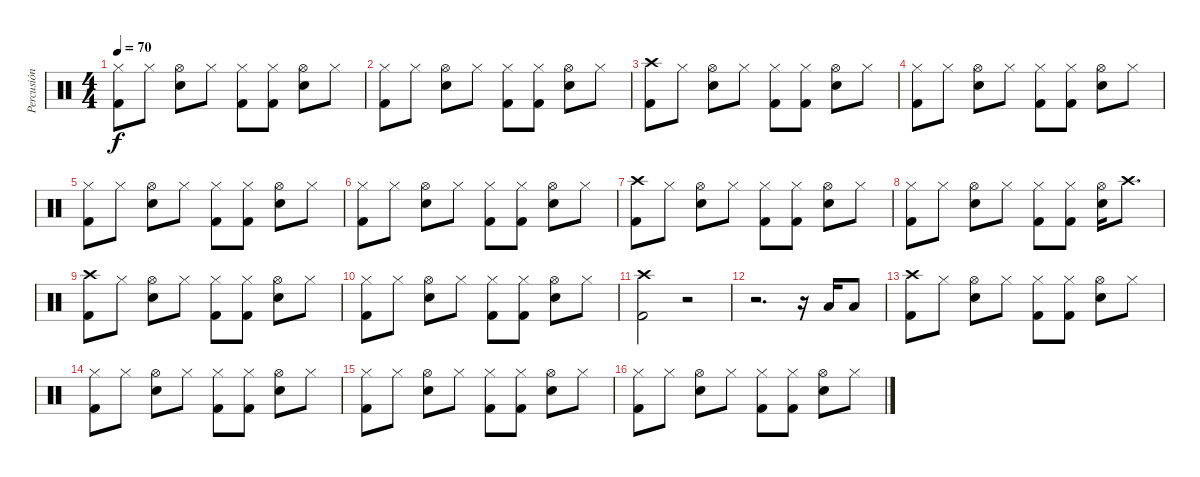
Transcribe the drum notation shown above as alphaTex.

\track ("Percusión" "Percusión") {instrument percussion}
\staff {score}
\articulation defaults
\ts (4 4)
\tempo 70
\clef neutral
\ks c
("Hi-Hat (closed)" "Kick (hit) 2").8{dy f} "Hi-Hat (closed)".8 ("Hi-Hat (open)" "Snare (hit) 2").8 "Hi-Hat (closed)".8 ("Hi-Hat (closed)" "Kick (hit) 2").8 ("Hi-Hat (closed)" "Kick (hit) 2").8 ("Hi-Hat (open)" "Snare (hit) 2").8 "Hi-Hat (closed)".8 |
("Hi-Hat (closed)" "Kick (hit) 2").8 "Hi-Hat (closed)".8 ("Hi-Hat (open)" "Snare (hit) 2").8 "Hi-Hat (closed)".8 ("Hi-Hat (closed)" "Kick (hit) 2").8 ("Hi-Hat (closed)" "Kick (hit) 2").8 ("Hi-Hat (open)" "Snare (hit) 2").8 "Hi-Hat (closed)".8 |
("Crash high (hit)" "Kick (hit) 2").8 "Hi-Hat (closed)".8 ("Hi-Hat (open)" "Snare (hit) 2").8 "Hi-Hat (closed)".8 ("Hi-Hat (closed)" "Kick (hit) 2").8 ("Hi-Hat (closed)" "Kick (hit) 2").8 ("Hi-Hat (open)" "Snare (hit) 2").8 "Hi-Hat (closed)".8 |
("Hi-Hat (closed)" "Kick (hit) 2").8 "Hi-Hat (closed)".8 ("Hi-Hat (open)" "Snare (hit) 2").8 "Hi-Hat (closed)".8 ("Hi-Hat (closed)" "Kick (hit) 2").8 ("Hi-Hat (closed)" "Kick (hit) 2").8 ("Hi-Hat (open)" "Snare (hit) 2").8 "Hi-Hat (closed)".8 |
("Hi-Hat (closed)" "Kick (hit) 2").8 "Hi-Hat (closed)".8 ("Hi-Hat (open)" "Snare (hit) 2").8 "Hi-Hat (closed)".8 ("Hi-Hat (closed)" "Kick (hit) 2").8 ("Hi-Hat (closed)" "Kick (hit) 2").8 ("Hi-Hat (open)" "Snare (hit) 2").8 "Hi-Hat (closed)".8 |
("Hi-Hat (closed)" "Kick (hit) 2").8 "Hi-Hat (closed)".8 ("Hi-Hat (open)" "Snare (hit) 2").8 "Hi-Hat (closed)".8 ("Hi-Hat (closed)" "Kick (hit) 2").8 ("Hi-Hat (closed)" "Kick (hit) 2").8 ("Hi-Hat (open)" "Snare (hit) 2").8 "Hi-Hat (closed)".8 |
("Crash high (hit)" "Kick (hit) 2").8 "Hi-Hat (closed)".8 ("Hi-Hat (open)" "Snare (hit) 2").8 "Hi-Hat (closed)".8 ("Hi-Hat (closed)" "Kick (hit) 2").8 ("Hi-Hat (closed)" "Kick (hit) 2").8 ("Hi-Hat (open)" "Snare (hit) 2").8 "Hi-Hat (closed)".8 |
("Hi-Hat (closed)" "Kick (hit) 2").8 "Hi-Hat (closed)".8 ("Hi-Hat (open)" "Snare (hit) 2").8 "Hi-Hat (closed)".8 ("Hi-Hat (closed)" "Kick (hit) 2").8 ("Hi-Hat (closed)" "Kick (hit) 2").8 ("Hi-Hat (open)" "Snare (hit) 2").16 "Crash high (hit)".8{d} |
("Crash high (hit)" "Kick (hit) 2").8 "Hi-Hat (closed)".8 ("Hi-Hat (open)" "Snare (hit) 2").8 "Hi-Hat (closed)".8 ("Hi-Hat (closed)" "Kick (hit) 2").8 ("Hi-Hat (closed)" "Kick (hit) 2").8 ("Hi-Hat (open)" "Snare (hit) 2").8 "Hi-Hat (closed)".8 |
("Hi-Hat (closed)" "Kick (hit) 2").8 "Hi-Hat (closed)".8 ("Hi-Hat (open)" "Snare (hit) 2").8 "Hi-Hat (closed)".8 ("Hi-Hat (closed)" "Kick (hit) 2").8 ("Hi-Hat (closed)" "Kick (hit) 2").8 ("Hi-Hat (open)" "Snare (hit) 2").8 "Hi-Hat (closed)".8 |
("Crash high (hit)" "Kick (hit) 2").2 r.2 |
r.2{d} r.16 "Low Tom (hit)".16 "Low Tom (hit)".8 |
("Crash high (hit)" "Kick (hit) 2").8 "Hi-Hat (closed)".8 ("Hi-Hat (open)" "Snare (hit) 2").8 "Hi-Hat (closed)".8 ("Hi-Hat (closed)" "Kick (hit) 2").8 ("Hi-Hat (closed)" "Kick (hit) 2").8 ("Hi-Hat (open)" "Snare (hit) 2").8 "Hi-Hat (closed)".8 |
("Hi-Hat (closed)" "Kick (hit) 2").8 "Hi-Hat (closed)".8 ("Hi-Hat (open)" "Snare (hit) 2").8 "Hi-Hat (closed)".8 ("Hi-Hat (closed)" "Kick (hit) 2").8 ("Hi-Hat (closed)" "Kick (hit) 2").8 ("Hi-Hat (open)" "Snare (hit) 2").8 "Hi-Hat (closed)".8 |
("Hi-Hat (closed)" "Kick (hit) 2").8 "Hi-Hat (closed)".8 ("Hi-Hat (open)" "Snare (hit) 2").8 "Hi-Hat (closed)".8 ("Hi-Hat (closed)" "Kick (hit) 2").8 ("Hi-Hat (closed)" "Kick (hit) 2").8 ("Hi-Hat (open)" "Snare (hit) 2").8 "Hi-Hat (closed)".8 |
("Hi-Hat (closed)" "Kick (hit) 2").8 "Hi-Hat (closed)".8 ("Hi-Hat (open)" "Snare (hit) 2").8 "Hi-Hat (closed)".8 ("Hi-Hat (closed)" "Kick (hit) 2").8 ("Hi-Hat (closed)" "Kick (hit) 2").8 ("Hi-Hat (open)" "Snare (hit) 2").8 "Hi-Hat (closed)".8
